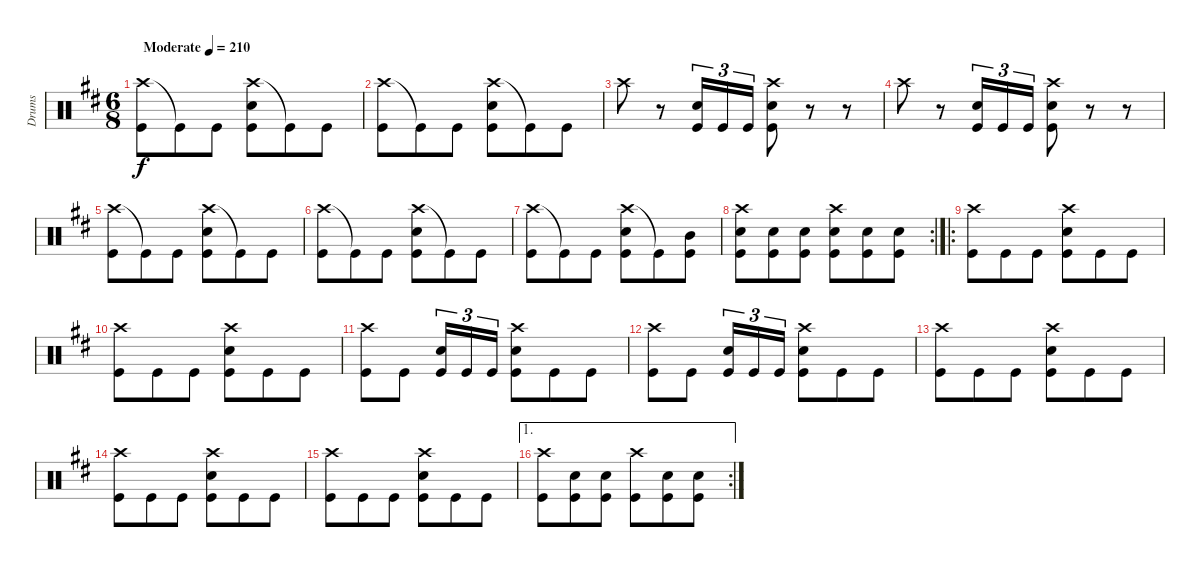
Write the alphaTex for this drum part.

\track ("Drums" "Drums") {instrument percussion}
\staff {score}
\articulation defaults
\ts (6 8)
\tempo (210 "Moderate")
\clef neutral
\ks bminor
("Crash high (hit)" "Kick (hit)").8{dy f} "Kick (hit)"{t}.8 "Kick (hit)".8 ("Crash high (hit)" "Snare (hit) 2" "Kick (hit)").8 "Kick (hit)"{t}.8 "Kick (hit)".8 |
("Crash high (hit)" "Kick (hit)").8 "Kick (hit)"{t}.8 "Kick (hit)".8 ("Crash high (hit)" "Snare (hit) 2" "Kick (hit)").8 "Kick (hit)"{t}.8 "Kick (hit)".8 |
"Crash high (hit)".8 r.8 ("Snare (hit) 2" "Kick (hit)").16{tu (3 2)} "Kick (hit)".16{tu (3 2)} "Kick (hit)".16{tu (3 2)} ("Crash high (hit)" "Snare (hit) 2" "Kick (hit)").8 r.8 r.8 |
"Crash high (hit)".8 r.8 ("Snare (hit) 2" "Kick (hit)").16{tu (3 2)} "Kick (hit)".16{tu (3 2)} "Kick (hit)".16{tu (3 2)} ("Crash high (hit)" "Snare (hit) 2" "Kick (hit)").8 r.8 r.8 |
("Crash high (hit)" "Kick (hit)").8 "Kick (hit)"{t}.8 "Kick (hit)".8 ("Crash high (hit)" "Snare (hit) 2" "Kick (hit)").8 "Kick (hit)"{t}.8 "Kick (hit)".8 |
("Crash high (hit)" "Kick (hit)").8 "Kick (hit)"{t}.8 "Kick (hit)".8 ("Crash high (hit)" "Snare (hit) 2" "Kick (hit)").8 "Kick (hit)"{t}.8 "Kick (hit)".8 |
("Crash high (hit)" "Kick (hit)").8 "Kick (hit)"{t}.8 "Kick (hit)".8 ("Crash high (hit)" "Snare (hit) 2" "Kick (hit)").8 "Kick (hit)"{t}.8 ("Mid Tom (hit)" "Kick (hit)").8 |
\rc 2
("Crash high (hit)" "Snare (hit) 2" "Kick (hit)").8 ("Snare (hit) 2" "Kick (hit)").8 ("Snare (hit) 2" "Kick (hit)").8 ("Crash high (hit)" "Snare (hit) 2" "Kick (hit)").8 ("Snare (hit) 2" "Kick (hit)").8 ("Snare (hit) 2" "Kick (hit)").8 |
\ro
("Crash high (hit)" "Kick (hit)").8 "Kick (hit)".8 "Kick (hit)".8 ("Crash high (hit)" "Snare (hit) 2" "Kick (hit)").8 "Kick (hit)".8 "Kick (hit)".8 |
("Crash high (hit)" "Kick (hit)").8 "Kick (hit)".8 "Kick (hit)".8 ("Crash high (hit)" "Snare (hit) 2" "Kick (hit)").8 "Kick (hit)".8 "Kick (hit)".8 |
("Crash high (hit)" "Kick (hit)").8 "Kick (hit)".8 ("Snare (hit) 2" "Kick (hit)").16{tu (3 2)} "Kick (hit)".16{tu (3 2)} "Kick (hit)".16{tu (3 2)} ("Crash high (hit)" "Snare (hit) 2" "Kick (hit)").8 "Kick (hit)".8 "Kick (hit)".8 |
("Crash high (hit)" "Kick (hit)").8 "Kick (hit)".8 ("Snare (hit) 2" "Kick (hit)").16{tu (3 2)} "Kick (hit)".16{tu (3 2)} "Kick (hit)".16{tu (3 2)} ("Crash high (hit)" "Snare (hit) 2" "Kick (hit)").8 "Kick (hit)".8 "Kick (hit)".8 |
("Crash high (hit)" "Kick (hit)").8 "Kick (hit)".8 "Kick (hit)".8 ("Crash high (hit)" "Snare (hit) 2" "Kick (hit)").8 "Kick (hit)".8 "Kick (hit)".8 |
("Crash high (hit)" "Kick (hit)").8 "Kick (hit)".8 "Kick (hit)".8 ("Crash high (hit)" "Snare (hit) 2" "Kick (hit)").8 "Kick (hit)".8 "Kick (hit)".8 |
("Crash high (hit)" "Kick (hit)").8 "Kick (hit)".8 "Kick (hit)".8 ("Crash high (hit)" "Snare (hit) 2" "Kick (hit)").8 "Kick (hit)".8 "Kick (hit)".8 |
\ae 1
\rc 2
("Crash high (hit)" "Kick (hit)").8 ("Snare (hit) 2" "Kick (hit)").8 ("Snare (hit) 2" "Kick (hit)").8 ("Crash high (hit)" "Kick (hit)").8 ("Snare (hit) 2" "Kick (hit)").8 ("Snare (hit) 2" "Kick (hit)").8
